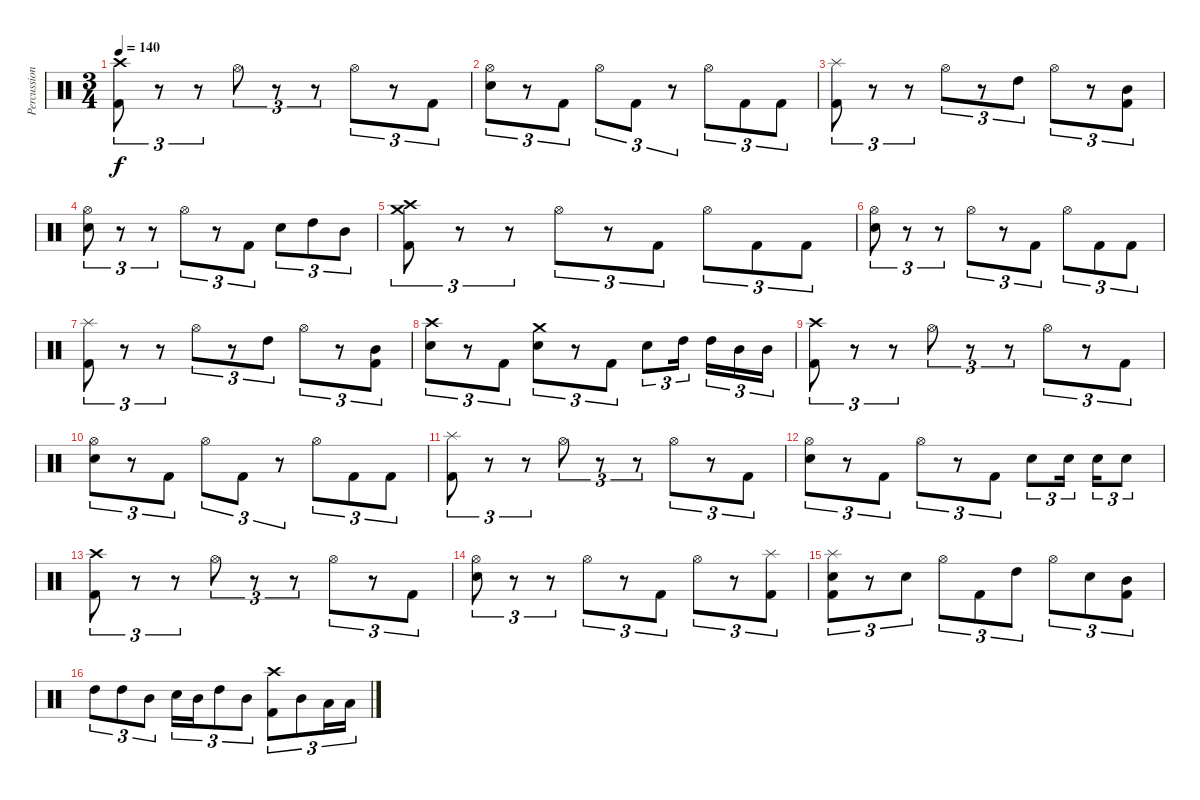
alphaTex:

\track ("Percussion" "Percussion") {instrument percussion}
\staff {score}
\articulation defaults
\ts (3 4)
\tempo 140
\clef neutral
\ks c
("Crash high (hit)" "Kick (hit) 2").8{tu (3 2) dy f} r.8{tu (3 2)} r.8{tu (3 2)} "Hi-Hat (open)".8{tu (3 2)} r.8{tu (3 2)} r.8{tu (3 2)} "Hi-Hat (open)".8{tu (3 2)} r.8{tu (3 2)} "Kick (hit) 2".8{tu (3 2)} |
("Hi-Hat (open)" "Electric Snare (hit)").8{tu (3 2)} r.8{tu (3 2)} "Kick (hit) 2".8{tu (3 2)} "Hi-Hat (open)".8{tu (3 2)} "Kick (hit) 2".8{tu (3 2)} r.8{tu (3 2)} "Hi-Hat (open)".8{tu (3 2)} "Kick (hit) 2".8{tu (3 2)} "Kick (hit) 2".8{tu (3 2)} |
("Splash (hit)" "Kick (hit) 2").8{tu (3 2)} r.8{tu (3 2)} r.8{tu (3 2)} "Hi-Hat (open)".8{tu (3 2)} r.8{tu (3 2)} "High Tom (hit)".8{tu (3 2)} "Hi-Hat (open)".8{tu (3 2)} r.8{tu (3 2)} ("Mid Tom (hit)" "Kick (hit) 2").8{tu (3 2)} |
("Hi-Hat (open)" "Electric Snare (hit)").8{tu (3 2)} r.8{tu (3 2)} r.8{tu (3 2)} "Hi-Hat (open)".8{tu (3 2)} r.8{tu (3 2)} "Kick (hit) 2".8{tu (3 2)} "Electric Snare (hit)".8{tu (3 2)} "High Tom (hit)".8{tu (3 2)} "Mid Tom (hit)".8{tu (3 2)} |
("Crash high (hit)" "Crash medium (hit)" "Kick (hit) 2").8{tu (3 2)} r.8{tu (3 2)} r.8{tu (3 2)} "Hi-Hat (open)".8{tu (3 2)} r.8{tu (3 2)} "Kick (hit) 2".8{tu (3 2)} "Hi-Hat (open)".8{tu (3 2)} "Kick (hit) 2".8{tu (3 2)} "Kick (hit) 2".8{tu (3 2)} |
("Hi-Hat (open)" "Electric Snare (hit)").8{tu (3 2)} r.8{tu (3 2)} r.8{tu (3 2)} "Hi-Hat (open)".8{tu (3 2)} r.8{tu (3 2)} "Kick (hit) 2".8{tu (3 2)} "Hi-Hat (open)".8{tu (3 2)} "Kick (hit) 2".8{tu (3 2)} "Kick (hit) 2".8{tu (3 2)} |
("Splash (hit)" "Kick (hit) 2").8{tu (3 2)} r.8{tu (3 2)} r.8{tu (3 2)} "Hi-Hat (open)".8{tu (3 2)} r.8{tu (3 2)} "High Tom (hit)".8{tu (3 2)} "Hi-Hat (open)".8{tu (3 2)} r.8{tu (3 2)} ("Mid Tom (hit)" "Kick (hit) 2").8{tu (3 2)} |
("Crash high (hit)" "Electric Snare (hit)").8{tu (3 2)} r.8{tu (3 2)} "Kick (hit) 2".8{tu (3 2)} ("Crash medium (hit)" "Electric Snare (hit)").8{tu (3 2)} r.8{tu (3 2)} "Kick (hit) 2".8{tu (3 2)} "Electric Snare (hit)".8{tu (3 2)} "High Tom (hit)".16{tu (3 2) beam splitsecondary} "High Tom (hit)".16{tu (3 2)} "Mid Tom (hit)".16{tu (3 2)} "Mid Tom (hit)".16{tu (3 2)} |
("Crash high (hit)" "Kick (hit) 2").8{tu (3 2)} r.8{tu (3 2)} r.8{tu (3 2)} "Hi-Hat (open)".8{tu (3 2)} r.8{tu (3 2)} r.8{tu (3 2)} "Hi-Hat (open)".8{tu (3 2)} r.8{tu (3 2)} "Kick (hit) 2".8{tu (3 2)} |
("Hi-Hat (open)" "Electric Snare (hit)").8{tu (3 2)} r.8{tu (3 2)} "Kick (hit) 2".8{tu (3 2)} "Hi-Hat (open)".8{tu (3 2)} "Kick (hit) 2".8{tu (3 2)} r.8{tu (3 2)} "Hi-Hat (open)".8{tu (3 2)} "Kick (hit) 2".8{tu (3 2)} "Kick (hit) 2".8{tu (3 2)} |
("Splash (hit)" "Kick (hit) 2").8{tu (3 2)} r.8{tu (3 2)} r.8{tu (3 2)} "Hi-Hat (open)".8{tu (3 2)} r.8{tu (3 2)} r.8{tu (3 2)} "Hi-Hat (open)".8{tu (3 2)} r.8{tu (3 2)} "Kick (hit) 2".8{tu (3 2)} |
("Hi-Hat (open)" "Electric Snare (hit)").8{tu (3 2)} r.8{tu (3 2)} "Kick (hit) 2".8{tu (3 2)} "Hi-Hat (open)".8{tu (3 2)} r.8{tu (3 2)} "Kick (hit) 2".8{tu (3 2)} "Electric Snare (hit)".8{tu (3 2)} "Electric Snare (hit)".16{tu (3 2) beam splitsecondary} "Electric Snare (hit)".16{tu (3 2)} "Electric Snare (hit)".8{tu (3 2)} |
("Crash high (hit)" "Kick (hit) 2").8{tu (3 2)} r.8{tu (3 2)} r.8{tu (3 2)} "Hi-Hat (open)".8{tu (3 2)} r.8{tu (3 2)} r.8{tu (3 2)} "Hi-Hat (open)".8{tu (3 2)} r.8{tu (3 2)} "Kick (hit) 2".8{tu (3 2)} |
("Hi-Hat (open)" "Electric Snare (hit)").8{tu (3 2)} r.8{tu (3 2)} r.8{tu (3 2)} "Hi-Hat (open)".8{tu (3 2)} r.8{tu (3 2)} "Kick (hit) 2".8{tu (3 2)} "Hi-Hat (open)".8{tu (3 2)} r.8{tu (3 2)} ("Splash (hit)" "Kick (hit) 2").8{tu (3 2)} |
("Splash (hit)" "Electric Snare (hit)" "Kick (hit) 2").8{tu (3 2)} r.8{tu (3 2)} "Electric Snare (hit)".8{tu (3 2)} "Hi-Hat (open)".8{tu (3 2)} "Kick (hit) 2".8{tu (3 2)} "High Tom (hit)".8{tu (3 2)} "Hi-Hat (open)".8{tu (3 2)} "Electric Snare (hit)".8{tu (3 2)} ("Mid Tom (hit)" "Kick (hit) 2").8{tu (3 2)} |
"High Tom (hit)".8{tu (3 2)} "High Tom (hit)".8{tu (3 2)} "Mid Tom (hit)".8{tu (3 2)} "Electric Snare (hit)".16{tu (3 2)} "Mid Tom (hit)".16{tu (3 2)} "High Tom (hit)".8{tu (3 2)} "Mid Tom (hit)".8{tu (3 2)} ("Crash high (hit)" "Kick (hit) 2").8{tu (3 2)} "Mid Tom (hit)".8{tu (3 2)} "Low Tom (hit)".16{tu (3 2)} "Low Tom (hit)".16{tu (3 2)}
